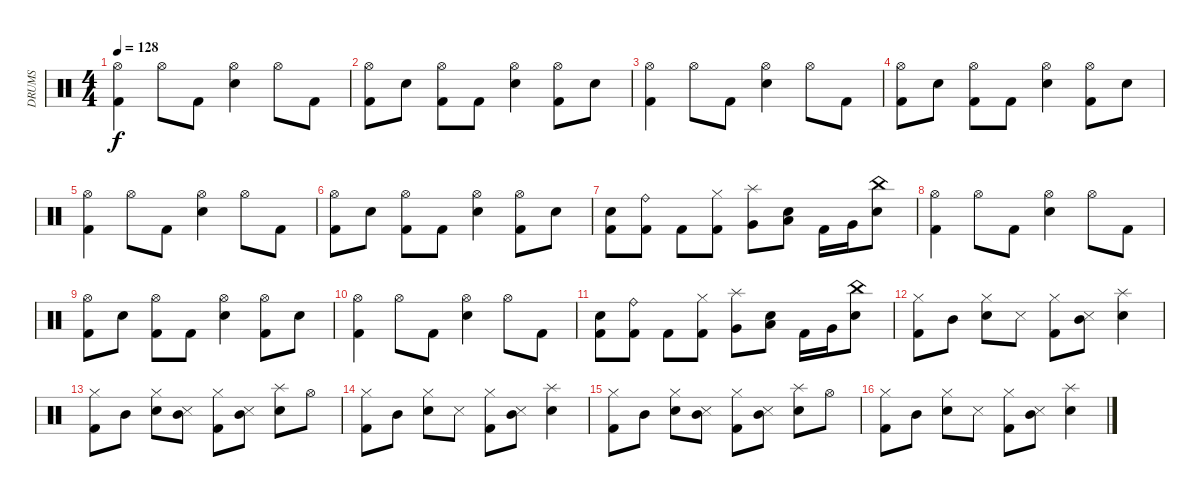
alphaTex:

\track ("DRUMS" "DRUMS") {instrument percussion}
\staff {score}
\articulation defaults
\ts (4 4)
\tempo 128
\clef neutral
\ks c
("Kick (hit) 2" "Hi-Hat (open)").4{dy f} "Hi-Hat (open)".8 "Kick (hit) 2".8 ("Electric Snare (hit)" "Hi-Hat (open)").4 "Hi-Hat (open)".8 "Kick (hit) 2".8 |
("Kick (hit) 2" "Hi-Hat (open)").8 "Electric Snare (hit)".8 ("Kick (hit) 2" "Hi-Hat (open)").8 "Kick (hit) 2".8 ("Electric Snare (hit)" "Hi-Hat (open)").4 ("Kick (hit) 2" "Hi-Hat (open)").8 "Electric Snare (hit)".8 |
("Kick (hit) 2" "Hi-Hat (open)").4 "Hi-Hat (open)".8 "Kick (hit) 2".8 ("Electric Snare (hit)" "Hi-Hat (open)").4 "Hi-Hat (open)".8 "Kick (hit) 2".8 |
("Kick (hit) 2" "Hi-Hat (open)").8 "Electric Snare (hit)".8 ("Kick (hit) 2" "Hi-Hat (open)").8 "Kick (hit) 2".8 ("Electric Snare (hit)" "Hi-Hat (open)").4 ("Kick (hit) 2" "Hi-Hat (open)").8 "Electric Snare (hit)".8 |
("Kick (hit) 2" "Hi-Hat (open)").4 "Hi-Hat (open)".8 "Kick (hit) 2".8 ("Electric Snare (hit)" "Hi-Hat (open)").4 "Hi-Hat (open)".8 "Kick (hit) 2".8 |
("Kick (hit) 2" "Hi-Hat (open)").8 "Electric Snare (hit)".8 ("Kick (hit) 2" "Hi-Hat (open)").8 "Kick (hit) 2".8 ("Electric Snare (hit)" "Hi-Hat (open)").4 ("Kick (hit) 2" "Hi-Hat (open)").8 "Electric Snare (hit)".8 |
("Electric Snare (hit)" "Kick (hit) 2").8 ("Kick (hit) 2" "Ride (bell)").8 "Kick (hit) 2".8 ("Hi-Hat (closed)" "Kick (hit) 2").8 ("Very Low Tom (hit)" "Splash (hit)").8 ("Low Tom (hit)" "Electric Snare (hit)").8 "Kick (hit) 2".16 "Very Low Tom (hit)".16 ("Electric Snare (hit)" "China (hit)").8 |
("Kick (hit) 2" "Hi-Hat (open)").4 "Hi-Hat (open)".8 "Kick (hit) 2".8 ("Electric Snare (hit)" "Hi-Hat (open)").4 "Hi-Hat (open)".8 "Kick (hit) 2".8 |
("Kick (hit) 2" "Hi-Hat (open)").8 "Electric Snare (hit)".8 ("Kick (hit) 2" "Hi-Hat (open)").8 "Kick (hit) 2".8 ("Electric Snare (hit)" "Hi-Hat (open)").4 ("Kick (hit) 2" "Hi-Hat (open)").8 "Electric Snare (hit)".8 |
("Kick (hit) 2" "Hi-Hat (open)").4 "Hi-Hat (open)".8 "Kick (hit) 2".8 ("Electric Snare (hit)" "Hi-Hat (open)").4 "Hi-Hat (open)".8 "Kick (hit) 2".8 |
("Electric Snare (hit)" "Kick (hit) 2").8 ("Kick (hit) 2" "Ride (bell)").8 "Kick (hit) 2".8 ("Hi-Hat (closed)" "Kick (hit) 2").8 ("Very Low Tom (hit)" "Splash (hit)").8 ("Low Tom (hit)" "Electric Snare (hit)").8 "Kick (hit) 2".16 "Very Low Tom (hit)".16 ("Electric Snare (hit)" "China (hit)").8 |
("Kick (hit) 2" "Hi-Hat (closed)").8 "Mid Tom (hit)".8 ("Electric Snare (hit)" "Hi-Hat (closed)").8 "Snare (side stick) 3".8 ("Kick (hit) 2" "Hi-Hat (closed)").8 ("Mid Tom (hit)" "Snare (side stick) 3").8 ("Electric Snare (hit)" "Splash (hit)").4 |
("Kick (hit) 2" "Hi-Hat (closed)").8 "Mid Tom (hit)".8 ("Electric Snare (hit)" "Hi-Hat (closed)").8 ("Mid Tom (hit)" "Snare (side stick) 3").8 ("Kick (hit) 2" "Hi-Hat (closed)").8 ("Mid Tom (hit)" "Snare (side stick) 3").8 ("Electric Snare (hit)" "Splash (hit)").8 "Hi-Hat (open)".8 |
("Kick (hit) 2" "Hi-Hat (closed)").8 "Mid Tom (hit)".8 ("Electric Snare (hit)" "Hi-Hat (closed)").8 "Snare (side stick) 3".8 ("Kick (hit) 2" "Hi-Hat (closed)").8 ("Mid Tom (hit)" "Snare (side stick) 3").8 ("Electric Snare (hit)" "Splash (hit)").4 |
("Kick (hit) 2" "Hi-Hat (closed)").8 "Mid Tom (hit)".8 ("Electric Snare (hit)" "Hi-Hat (closed)").8 ("Mid Tom (hit)" "Snare (side stick) 3").8 ("Kick (hit) 2" "Hi-Hat (closed)").8 ("Mid Tom (hit)" "Snare (side stick) 3").8 ("Electric Snare (hit)" "Splash (hit)").8 "Hi-Hat (open)".8 |
("Kick (hit) 2" "Hi-Hat (closed)").8 "Mid Tom (hit)".8 ("Electric Snare (hit)" "Hi-Hat (closed)").8 "Snare (side stick) 3".8 ("Kick (hit) 2" "Hi-Hat (closed)").8 ("Mid Tom (hit)" "Snare (side stick) 3").8 ("Electric Snare (hit)" "Splash (hit)").4
